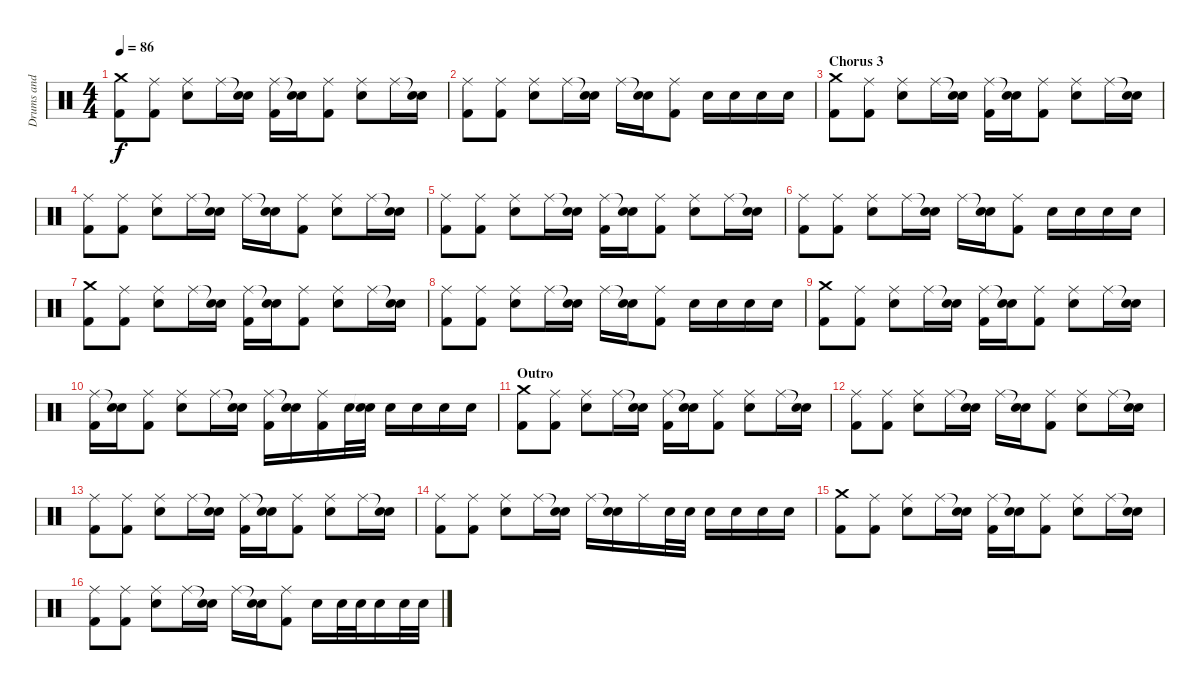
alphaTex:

\track ("Drums and Percussion" "Drums and ") {instrument percussion}
\staff {score}
\articulation defaults
\ts (4 4)
\tempo 86
\clef neutral
\ks c
("Crash medium (hit)" "Kick (hit) 2").8{dy f} ("Ride (middle)" "Kick (hit) 2").8 ("Ride (middle)" "Snare (hit) 2").8 "Ride (middle)".16 ("Snare (hit)"{t} "Snare (hit) 2").16 ("Ride (middle)" "Kick (hit) 2").16 ("Snare (hit)"{t} "Snare (hit) 2").16 ("Ride (middle)" "Kick (hit) 2").8 ("Ride (middle)" "Snare (hit) 2").8 "Ride (middle)".16 ("Snare (hit)"{t} "Snare (hit) 2").16 |
("Ride (middle)" "Kick (hit) 2").8 ("Ride (middle)" "Kick (hit) 2").8 ("Ride (middle)" "Snare (hit) 2").8 "Ride (middle)".16 ("Snare (hit)"{t} "Snare (hit) 2").16 "Ride (middle)".16 ("Snare (hit)"{t} "Snare (hit) 2").16 ("Ride (middle)" "Kick (hit) 2").8 "Snare (hit) 2".16 "Snare (hit) 2".16 "Snare (hit) 2".16 "Snare (hit) 2".16 |
\section ("" "Chorus 3")
("Crash medium (hit)" "Kick (hit) 2").8 ("Ride (middle)" "Kick (hit) 2").8 ("Ride (middle)" "Snare (hit) 2").8 "Ride (middle)".16 ("Snare (hit)"{t} "Snare (hit) 2").16 ("Ride (middle)" "Kick (hit) 2").16 ("Snare (hit)"{t} "Snare (hit) 2").16 ("Ride (middle)" "Kick (hit) 2").8 ("Ride (middle)" "Snare (hit) 2").8 "Ride (middle)".16 ("Snare (hit)"{t} "Snare (hit) 2").16 |
("Ride (middle)" "Kick (hit) 2").8 ("Ride (middle)" "Kick (hit) 2").8 ("Ride (middle)" "Snare (hit) 2").8 "Ride (middle)".16 ("Snare (hit)"{t} "Snare (hit) 2").16 "Ride (middle)".16 ("Snare (hit)"{t} "Snare (hit) 2").16 ("Ride (middle)" "Kick (hit) 2").8 ("Ride (middle)" "Snare (hit) 2").8 "Ride (middle)".16 ("Snare (hit)"{t} "Snare (hit) 2").16 |
("Ride (middle)" "Kick (hit) 2").8 ("Ride (middle)" "Kick (hit) 2").8 ("Ride (middle)" "Snare (hit) 2").8 "Ride (middle)".16 ("Snare (hit)"{t} "Snare (hit) 2").16 ("Ride (middle)" "Kick (hit) 2").16 ("Snare (hit)"{t} "Snare (hit) 2").16 ("Ride (middle)" "Kick (hit) 2").8 ("Ride (middle)" "Snare (hit) 2").8 "Ride (middle)".16 ("Snare (hit)"{t} "Snare (hit) 2").16 |
("Ride (middle)" "Kick (hit) 2").8 ("Ride (middle)" "Kick (hit) 2").8 ("Ride (middle)" "Snare (hit) 2").8 "Ride (middle)".16 ("Snare (hit)"{t} "Snare (hit) 2").16 "Ride (middle)".16 ("Snare (hit)"{t} "Snare (hit) 2").16 ("Ride (middle)" "Kick (hit) 2").8 "Snare (hit) 2".16 "Snare (hit) 2".16 "Snare (hit) 2".16 "Snare (hit) 2".16 |
("Crash medium (hit)" "Kick (hit) 2").8 ("Ride (middle)" "Kick (hit) 2").8 ("Ride (middle)" "Snare (hit) 2").8 "Ride (middle)".16 ("Snare (hit)"{t} "Snare (hit) 2").16 ("Ride (middle)" "Kick (hit) 2").16 ("Snare (hit)"{t} "Snare (hit) 2").16 ("Ride (middle)" "Kick (hit) 2").8 ("Ride (middle)" "Snare (hit) 2").8 "Ride (middle)".16 ("Snare (hit)"{t} "Snare (hit) 2").16 |
("Ride (middle)" "Kick (hit) 2").8 ("Ride (middle)" "Kick (hit) 2").8 ("Ride (middle)" "Snare (hit) 2").8 "Ride (middle)".16 ("Snare (hit)"{t} "Snare (hit) 2").16 "Ride (middle)".16 ("Snare (hit)"{t} "Snare (hit) 2").16 ("Ride (middle)" "Kick (hit) 2").8 "Snare (hit) 2".16 "Snare (hit) 2".16 "Snare (hit) 2".16 "Snare (hit) 2".16 |
("Crash medium (hit)" "Kick (hit) 2").8 ("Ride (middle)" "Kick (hit) 2").8 ("Ride (middle)" "Snare (hit) 2").8 "Ride (middle)".16 ("Snare (hit)"{t} "Snare (hit) 2").16 ("Ride (middle)" "Kick (hit) 2").16 ("Snare (hit)"{t} "Snare (hit) 2").16 ("Ride (middle)" "Kick (hit) 2").8 ("Ride (middle)" "Snare (hit) 2").8 "Ride (middle)".16 ("Snare (hit)"{t} "Snare (hit) 2").16 |
("Ride (middle)" "Kick (hit) 2").16 ("Snare (hit)"{t} "Snare (hit) 2").16 ("Ride (middle)" "Kick (hit) 2").8 ("Ride (middle)" "Snare (hit) 2").8 "Ride (middle)".16 ("Snare (hit)"{t} "Snare (hit) 2").16 ("Ride (middle)" "Kick (hit) 2").16 ("Snare (hit)"{t} "Snare (hit) 2").16 ("Ride (middle)" "Kick (hit) 2").16 "Snare (hit) 2".32 ("Snare (hit)"{t} "Snare (hit) 2").32 "Snare (hit) 2".16 "Snare (hit) 2".16 "Snare (hit) 2".16 "Snare (hit) 2".16 |
\section ("" "Outro")
("Crash medium (hit)" "Kick (hit) 2").8 ("Ride (middle)" "Kick (hit) 2").8 ("Ride (middle)" "Snare (hit) 2").8 "Ride (middle)".16 ("Snare (hit)"{t} "Snare (hit) 2").16 ("Ride (middle)" "Kick (hit) 2").16 ("Snare (hit)"{t} "Snare (hit) 2").16 ("Ride (middle)" "Kick (hit) 2").8 ("Ride (middle)" "Snare (hit) 2").8 "Ride (middle)".16 ("Snare (hit)"{t} "Snare (hit) 2").16 |
("Ride (middle)" "Kick (hit) 2").8 ("Ride (middle)" "Kick (hit) 2").8 ("Ride (middle)" "Snare (hit) 2").8 "Ride (middle)".16 ("Snare (hit)"{t} "Snare (hit) 2").16 "Ride (middle)".16 ("Snare (hit)"{t} "Snare (hit) 2").16 ("Ride (middle)" "Kick (hit) 2").8 ("Ride (middle)" "Snare (hit) 2").8 "Ride (middle)".16 ("Snare (hit)"{t} "Snare (hit) 2").16 |
("Ride (middle)" "Kick (hit) 2").8 ("Ride (middle)" "Kick (hit) 2").8 ("Ride (middle)" "Snare (hit) 2").8 "Ride (middle)".16 ("Snare (hit)"{t} "Snare (hit) 2").16 ("Ride (middle)" "Kick (hit) 2").16 ("Snare (hit)"{t} "Snare (hit) 2").16 ("Ride (middle)" "Kick (hit) 2").8 ("Ride (middle)" "Snare (hit) 2").8 "Ride (middle)".16 ("Snare (hit)"{t} "Snare (hit) 2").16 |
("Ride (middle)" "Kick (hit) 2").8 ("Ride (middle)" "Kick (hit) 2").8 ("Ride (middle)" "Snare (hit) 2").8 "Ride (middle)".16 ("Snare (hit)"{t} "Snare (hit) 2").16 "Ride (middle)".16 ("Snare (hit)"{t} "Snare (hit) 2").16 "Ride (middle)".16 "Snare (hit) 2".32 "Snare (hit) 2".32 "Snare (hit) 2".16 "Snare (hit) 2".16 "Snare (hit) 2".16 "Snare (hit) 2".16 |
("Crash medium (hit)" "Kick (hit) 2").8 ("Ride (middle)" "Kick (hit) 2").8 ("Ride (middle)" "Snare (hit) 2").8 "Ride (middle)".16 ("Snare (hit)"{t} "Snare (hit) 2").16 ("Ride (middle)" "Kick (hit) 2").16 ("Snare (hit)"{t} "Snare (hit) 2").16 ("Ride (middle)" "Kick (hit) 2").8 ("Ride (middle)" "Snare (hit) 2").8 "Ride (middle)".16 ("Snare (hit)"{t} "Snare (hit) 2").16 |
("Ride (middle)" "Kick (hit) 2").8 ("Ride (middle)" "Kick (hit) 2").8 ("Ride (middle)" "Snare (hit) 2").8 "Ride (middle)".16 ("Snare (hit)"{t} "Snare (hit) 2").16 "Ride (middle)".16 ("Snare (hit)"{t} "Snare (hit) 2").16 ("Ride (middle)" "Kick (hit) 2").8 "Snare (hit) 2".16 "Snare (hit) 2".32 "Snare (hit) 2".32 "Snare (hit) 2".16 "Snare (hit) 2".32 "Snare (hit) 2".32
